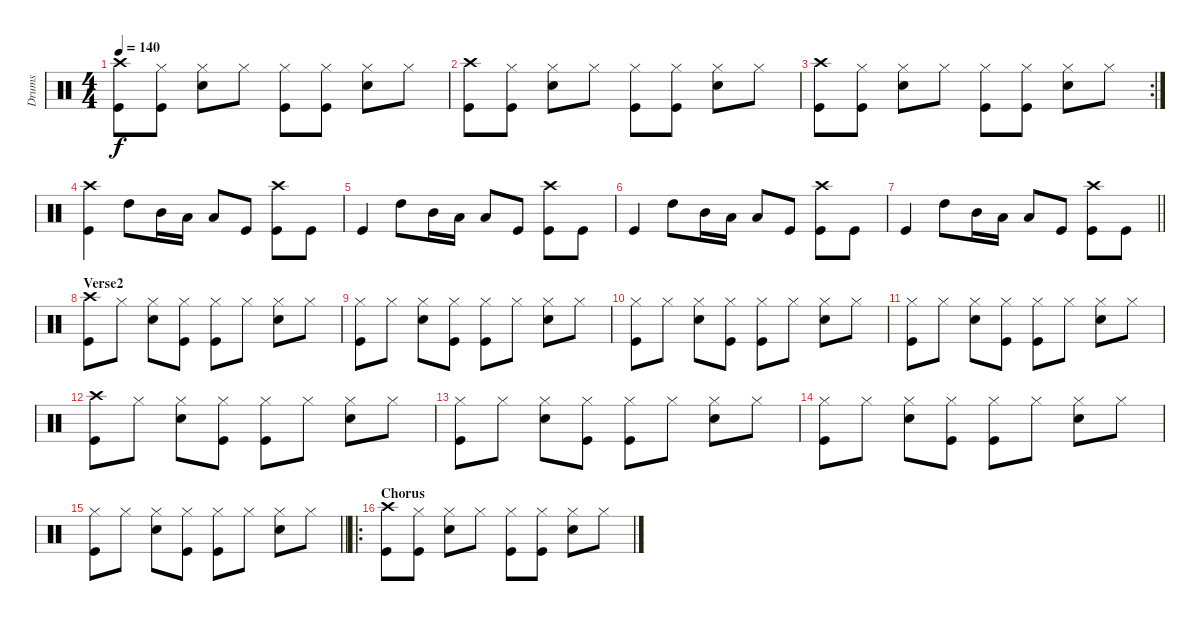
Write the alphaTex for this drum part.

\track ("Drums" "Drums") {instrument percussion}
\staff {score}
\articulation defaults
\ts (4 4)
\tempo 140
\clef neutral
\ks c
("Crash high (hit)" "Kick (hit)").8{dy f} ("Hi-Hat (closed)" "Kick (hit)").8 ("Snare (hit) 2" "Hi-Hat (closed)").8 "Hi-Hat (closed)".8 ("Hi-Hat (closed)" "Kick (hit)").8 ("Hi-Hat (closed)" "Kick (hit)").8 ("Snare (hit) 2" "Hi-Hat (closed)").8 "Hi-Hat (closed)".8 |
("Crash high (hit)" "Kick (hit)").8 ("Hi-Hat (closed)" "Kick (hit)").8 ("Snare (hit) 2" "Hi-Hat (closed)").8 "Hi-Hat (closed)".8 ("Hi-Hat (closed)" "Kick (hit)").8 ("Hi-Hat (closed)" "Kick (hit)").8 ("Snare (hit) 2" "Hi-Hat (closed)").8 "Hi-Hat (closed)".8 |
\rc 2
("Crash high (hit)" "Kick (hit)").8 ("Hi-Hat (closed)" "Kick (hit)").8 ("Snare (hit) 2" "Hi-Hat (closed)").8 "Hi-Hat (closed)".8 ("Hi-Hat (closed)" "Kick (hit)").8 ("Hi-Hat (closed)" "Kick (hit)").8 ("Snare (hit) 2" "Hi-Hat (closed)").8 "Hi-Hat (closed)".8 |
("Crash high (hit)" "Kick (hit)").4 "High Tom (hit)".8 "Mid Tom (hit)".16 "Low Tom (hit)".16 "Low Floor Tom (hit)".8 "Kick (hit)".8 ("Crash high (hit)" "Kick (hit)").8 "Kick (hit)".8 |
"Kick (hit)".4 "High Tom (hit)".8 "Mid Tom (hit)".16 "Low Tom (hit)".16 "Low Floor Tom (hit)".8 "Kick (hit)".8 ("Crash high (hit)" "Kick (hit)").8 "Kick (hit)".8 |
"Kick (hit)".4 "High Tom (hit)".8 "Mid Tom (hit)".16 "Low Tom (hit)".16 "Low Floor Tom (hit)".8 "Kick (hit)".8 ("Crash high (hit)" "Kick (hit)").8 "Kick (hit)".8 |
\barLineRight lightlight "Kick (hit)".4 "High Tom (hit)".8 "Mid Tom (hit)".16 "Low Tom (hit)".16 "Low Floor Tom (hit)".8 "Kick (hit)".8
("Crash high (hit)" "Kick (hit)").8 "Kick (hit)".8 |
\section ("" "Verse2")
("Crash high (hit)" "Kick (hit)").8 "Hi-Hat (closed)".8 ("Snare (hit) 2" "Hi-Hat (closed)").8 ("Hi-Hat (closed)" "Kick (hit)").8 ("Hi-Hat (closed)" "Kick (hit)").8 "Hi-Hat (closed)".8 ("Snare (hit) 2" "Hi-Hat (closed)").8 "Hi-Hat (closed)".8 |
("Hi-Hat (closed)" "Kick (hit)").8 "Hi-Hat (closed)".8 ("Snare (hit) 2" "Hi-Hat (closed)").8 ("Hi-Hat (closed)" "Kick (hit)").8 ("Hi-Hat (closed)" "Kick (hit)").8 "Hi-Hat (closed)".8 ("Snare (hit) 2" "Hi-Hat (closed)").8 "Hi-Hat (closed)".8 |
("Hi-Hat (closed)" "Kick (hit)").8 "Hi-Hat (closed)".8 ("Snare (hit) 2" "Hi-Hat (closed)").8 ("Hi-Hat (closed)" "Kick (hit)").8 ("Hi-Hat (closed)" "Kick (hit)").8 "Hi-Hat (closed)".8 ("Snare (hit) 2" "Hi-Hat (closed)").8 "Hi-Hat (closed)".8 |
("Hi-Hat (closed)" "Kick (hit)").8 "Hi-Hat (closed)".8 ("Snare (hit) 2" "Hi-Hat (closed)").8 ("Hi-Hat (closed)" "Kick (hit)").8 ("Hi-Hat (closed)" "Kick (hit)").8 "Hi-Hat (closed)".8 ("Snare (hit) 2" "Hi-Hat (closed)").8 "Hi-Hat (closed)".8 |
("Crash high (hit)" "Kick (hit)").8 "Hi-Hat (closed)".8 ("Snare (hit) 2" "Hi-Hat (closed)").8 ("Hi-Hat (closed)" "Kick (hit)").8 ("Hi-Hat (closed)" "Kick (hit)").8 "Hi-Hat (closed)".8 ("Snare (hit) 2" "Hi-Hat (closed)").8 "Hi-Hat (closed)".8 |
("Hi-Hat (closed)" "Kick (hit)").8 "Hi-Hat (closed)".8 ("Snare (hit) 2" "Hi-Hat (closed)").8 ("Hi-Hat (closed)" "Kick (hit)").8 ("Hi-Hat (closed)" "Kick (hit)").8 "Hi-Hat (closed)".8 ("Snare (hit) 2" "Hi-Hat (closed)").8 "Hi-Hat (closed)".8 |
("Hi-Hat (closed)" "Kick (hit)").8 "Hi-Hat (closed)".8 ("Snare (hit) 2" "Hi-Hat (closed)").8 ("Hi-Hat (closed)" "Kick (hit)").8 ("Hi-Hat (closed)" "Kick (hit)").8 "Hi-Hat (closed)".8 ("Snare (hit) 2" "Hi-Hat (closed)").8 "Hi-Hat (closed)".8 |
\barLineRight lightlight
("Hi-Hat (closed)" "Kick (hit)").8 "Hi-Hat (closed)".8 ("Snare (hit) 2" "Hi-Hat (closed)").8 ("Hi-Hat (closed)" "Kick (hit)").8 ("Hi-Hat (closed)" "Kick (hit)").8 "Hi-Hat (closed)".8 ("Snare (hit) 2" "Hi-Hat (closed)").8 "Hi-Hat (closed)".8 |
\ro
\section ("" "Chorus")
("Crash high (hit)" "Kick (hit)").8 ("Hi-Hat (closed)" "Kick (hit)").8 ("Snare (hit) 2" "Hi-Hat (closed)").8 "Hi-Hat (closed)".8 ("Hi-Hat (closed)" "Kick (hit)").8 ("Hi-Hat (closed)" "Kick (hit)").8 ("Snare (hit) 2" "Hi-Hat (closed)").8 "Hi-Hat (closed)".8
